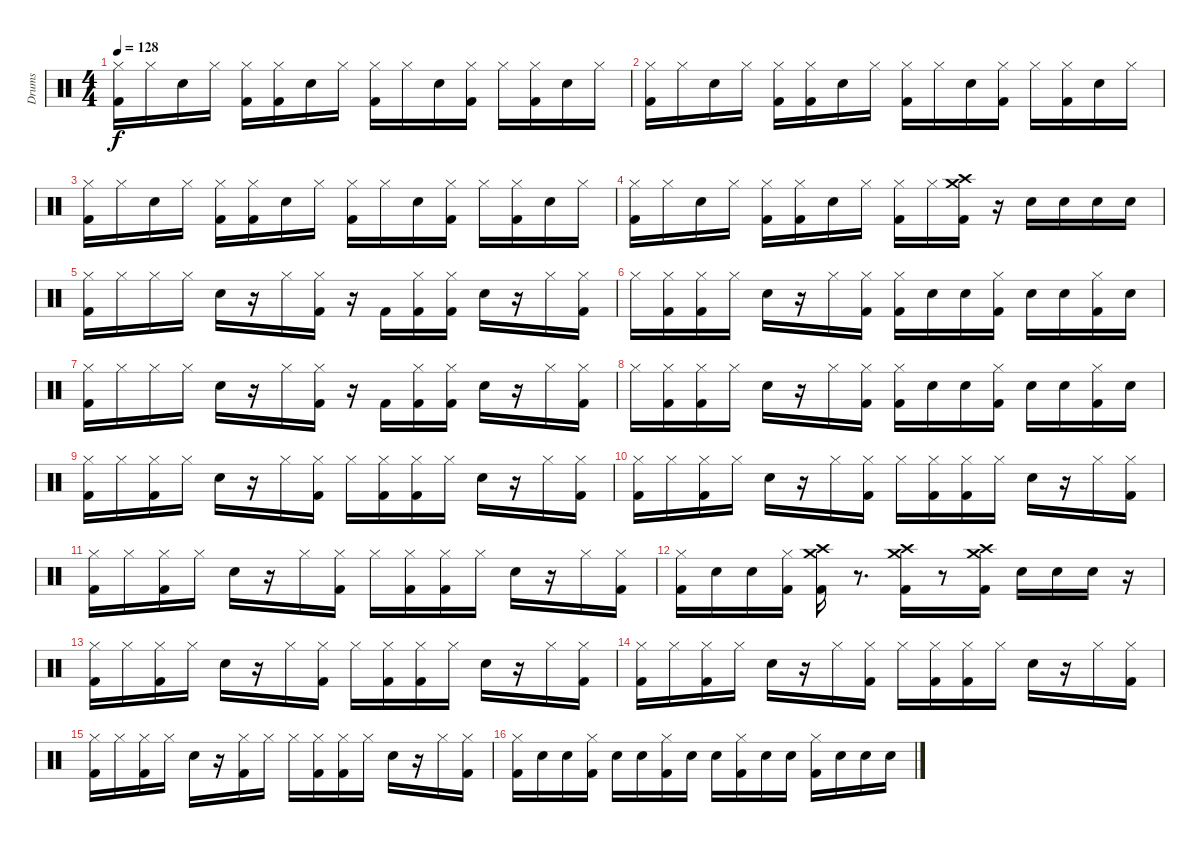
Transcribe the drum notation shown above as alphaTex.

\track ("Drums" "Drums") {instrument percussion}
\staff {score}
\articulation defaults
\ts (4 4)
\tempo 128
\clef neutral
\ks c
("Hi-Hat (closed)" "Kick (hit) 2").16{dy f} "Hi-Hat (closed)".16 "Snare (hit) 2".16 "Hi-Hat (closed)".16 ("Hi-Hat (closed)" "Kick (hit) 2").16 ("Hi-Hat (closed)" "Kick (hit) 2").16 "Snare (hit) 2".16 "Hi-Hat (closed)".16 ("Hi-Hat (closed)" "Kick (hit) 2").16 "Hi-Hat (closed)".16 "Snare (hit) 2".16 ("Hi-Hat (closed)" "Kick (hit) 2").16 "Hi-Hat (closed)".16 ("Hi-Hat (closed)" "Kick (hit) 2").16 "Snare (hit) 2".16 "Hi-Hat (closed)".16 |
("Hi-Hat (closed)" "Kick (hit) 2").16 "Hi-Hat (closed)".16 "Snare (hit) 2".16 "Hi-Hat (closed)".16 ("Hi-Hat (closed)" "Kick (hit) 2").16 ("Hi-Hat (closed)" "Kick (hit) 2").16 "Snare (hit) 2".16 "Hi-Hat (closed)".16 ("Hi-Hat (closed)" "Kick (hit) 2").16 "Hi-Hat (closed)".16 "Snare (hit) 2".16 ("Hi-Hat (closed)" "Kick (hit) 2").16 "Hi-Hat (closed)".16 ("Hi-Hat (closed)" "Kick (hit) 2").16 "Snare (hit) 2".16 "Hi-Hat (closed)".16 |
("Hi-Hat (closed)" "Kick (hit) 2").16 "Hi-Hat (closed)".16 "Snare (hit) 2".16 "Hi-Hat (closed)".16 ("Hi-Hat (closed)" "Kick (hit) 2").16 ("Hi-Hat (closed)" "Kick (hit) 2").16 "Snare (hit) 2".16 "Hi-Hat (closed)".16 ("Hi-Hat (closed)" "Kick (hit) 2").16 "Hi-Hat (closed)".16 "Snare (hit) 2".16 ("Hi-Hat (closed)" "Kick (hit) 2").16 "Hi-Hat (closed)".16 ("Hi-Hat (closed)" "Kick (hit) 2").16 "Snare (hit) 2".16 "Hi-Hat (closed)".16 |
("Hi-Hat (closed)" "Kick (hit) 2").16 "Hi-Hat (closed)".16 "Snare (hit) 2".16 "Hi-Hat (closed)".16 ("Hi-Hat (closed)" "Kick (hit) 2").16 ("Hi-Hat (closed)" "Kick (hit) 2").16 "Snare (hit) 2".16 "Hi-Hat (closed)".16 ("Hi-Hat (closed)" "Kick (hit) 2").16 "Hi-Hat (closed)".16 ("Crash medium (hit)" "Crash high (hit)" "Kick (hit) 2").16 r.16 "Snare (hit) 2".16 "Snare (hit) 2".16 "Snare (hit) 2".16 "Snare (hit) 2".16 |
("Hi-Hat (closed)" "Kick (hit) 2").16 "Hi-Hat (closed)".16 "Hi-Hat (closed)".16 "Hi-Hat (closed)".16 "Snare (hit) 2".16 r.16 "Hi-Hat (closed)".16 ("Hi-Hat (closed)" "Kick (hit) 2").16 r.16 "Kick (hit) 2".16 ("Hi-Hat (closed)" "Kick (hit) 2").16 ("Hi-Hat (closed)" "Kick (hit) 2").16 "Snare (hit) 2".16 r.16 "Hi-Hat (closed)".16 ("Hi-Hat (closed)" "Kick (hit) 2").16 |
"Hi-Hat (closed)".16 ("Hi-Hat (closed)" "Kick (hit) 2").16 ("Hi-Hat (closed)" "Kick (hit) 2").16 "Hi-Hat (closed)".16 "Snare (hit) 2".16 r.16 "Hi-Hat (closed)".16 ("Hi-Hat (closed)" "Kick (hit) 2").16 ("Hi-Hat (closed)" "Kick (hit) 2").16 "Snare (hit) 2".16 "Snare (hit) 2".16 ("Hi-Hat (closed)" "Kick (hit) 2").16 "Snare (hit) 2".16 "Snare (hit) 2".16 ("Hi-Hat (closed)" "Kick (hit) 2").16 "Snare (hit) 2".16 |
("Hi-Hat (closed)" "Kick (hit) 2").16 "Hi-Hat (closed)".16 "Hi-Hat (closed)".16 "Hi-Hat (closed)".16 "Snare (hit) 2".16 r.16 "Hi-Hat (closed)".16 ("Hi-Hat (closed)" "Kick (hit) 2").16 r.16 "Kick (hit) 2".16 ("Hi-Hat (closed)" "Kick (hit) 2").16 ("Hi-Hat (closed)" "Kick (hit) 2").16 "Snare (hit) 2".16 r.16 "Hi-Hat (closed)".16 ("Hi-Hat (closed)" "Kick (hit) 2").16 |
"Hi-Hat (closed)".16 ("Hi-Hat (closed)" "Kick (hit) 2").16 ("Hi-Hat (closed)" "Kick (hit) 2").16 "Hi-Hat (closed)".16 "Snare (hit) 2".16 r.16 "Hi-Hat (closed)".16 ("Hi-Hat (closed)" "Kick (hit) 2").16 ("Hi-Hat (closed)" "Kick (hit) 2").16 "Snare (hit) 2".16 "Snare (hit) 2".16 ("Hi-Hat (closed)" "Kick (hit) 2").16 "Snare (hit) 2".16 "Snare (hit) 2".16 ("Hi-Hat (closed)" "Kick (hit) 2").16 "Snare (hit) 2".16 |
("Hi-Hat (closed)" "Kick (hit) 2").16 "Hi-Hat (closed)".16 ("Hi-Hat (closed)" "Kick (hit) 2").16 "Hi-Hat (closed)".16 "Snare (hit) 2".16 r.16 "Hi-Hat (closed)".16 ("Hi-Hat (closed)" "Kick (hit) 2").16 "Hi-Hat (closed)".16 ("Hi-Hat (closed)" "Kick (hit) 2").16 ("Hi-Hat (closed)" "Kick (hit) 2").16 "Hi-Hat (closed)".16 "Snare (hit) 2".16 r.16 "Hi-Hat (closed)".16 ("Hi-Hat (closed)" "Kick (hit) 2").16 |
("Hi-Hat (closed)" "Kick (hit) 2").16 "Hi-Hat (closed)".16 ("Hi-Hat (closed)" "Kick (hit) 2").16 "Hi-Hat (closed)".16 "Snare (hit) 2".16 r.16 "Hi-Hat (closed)".16 ("Hi-Hat (closed)" "Kick (hit) 2").16 "Hi-Hat (closed)".16 ("Hi-Hat (closed)" "Kick (hit) 2").16 ("Hi-Hat (closed)" "Kick (hit) 2").16 "Hi-Hat (closed)".16 "Snare (hit) 2".16 r.16 "Hi-Hat (closed)".16 ("Hi-Hat (closed)" "Kick (hit) 2").16 |
("Hi-Hat (closed)" "Kick (hit) 2").16 "Hi-Hat (closed)".16 ("Hi-Hat (closed)" "Kick (hit) 2").16 "Hi-Hat (closed)".16 "Snare (hit) 2".16 r.16 "Hi-Hat (closed)".16 ("Hi-Hat (closed)" "Kick (hit) 2").16 "Hi-Hat (closed)".16 ("Hi-Hat (closed)" "Kick (hit) 2").16 ("Hi-Hat (closed)" "Kick (hit) 2").16 "Hi-Hat (closed)".16 "Snare (hit) 2".16 r.16 "Hi-Hat (closed)".16 ("Hi-Hat (closed)" "Kick (hit) 2").16 |
("Hi-Hat (closed)" "Kick (hit) 2").16 "Snare (hit) 2".16 "Snare (hit) 2".16 ("Hi-Hat (closed)" "Kick (hit) 2").16 ("Crash medium (hit)" "Crash high (hit)" "Kick (hit) 2").16 r.8{d} ("Crash medium (hit)" "Crash high (hit)" "Kick (hit) 2").16 r.8 ("Crash medium (hit)" "Crash high (hit)" "Kick (hit) 2").16 "Snare (hit) 2".16 "Snare (hit) 2".16 "Snare (hit) 2".16 r.16 |
("Hi-Hat (closed)" "Kick (hit) 2").16 "Hi-Hat (closed)".16 ("Hi-Hat (closed)" "Kick (hit) 2").16 "Hi-Hat (closed)".16 "Snare (hit) 2".16 r.16 "Hi-Hat (closed)".16 ("Hi-Hat (closed)" "Kick (hit) 2").16 "Hi-Hat (closed)".16 ("Hi-Hat (closed)" "Kick (hit) 2").16 ("Hi-Hat (closed)" "Kick (hit) 2").16 "Hi-Hat (closed)".16 "Snare (hit) 2".16 r.16 "Hi-Hat (closed)".16 ("Hi-Hat (closed)" "Kick (hit) 2").16 |
("Hi-Hat (closed)" "Kick (hit) 2").16 "Hi-Hat (closed)".16 ("Hi-Hat (closed)" "Kick (hit) 2").16 "Hi-Hat (closed)".16 "Snare (hit) 2".16 r.16 "Hi-Hat (closed)".16 ("Hi-Hat (closed)" "Kick (hit) 2").16 "Hi-Hat (closed)".16 ("Hi-Hat (closed)" "Kick (hit) 2").16 ("Hi-Hat (closed)" "Kick (hit) 2").16 "Hi-Hat (closed)".16 "Snare (hit) 2".16 r.16 "Hi-Hat (closed)".16 ("Hi-Hat (closed)" "Kick (hit) 2").16 |
("Hi-Hat (closed)" "Kick (hit) 2").16 "Hi-Hat (closed)".16 ("Hi-Hat (closed)" "Kick (hit) 2").16 "Hi-Hat (closed)".16 "Snare (hit) 2".16 r.16 ("Hi-Hat (closed)" "Kick (hit) 2").16 "Hi-Hat (closed)".16 "Hi-Hat (closed)".16 ("Hi-Hat (closed)" "Kick (hit) 2").16 ("Hi-Hat (closed)" "Kick (hit) 2").16 "Hi-Hat (closed)".16 "Snare (hit) 2".16 r.16 "Hi-Hat (closed)".16 ("Hi-Hat (closed)" "Kick (hit) 2").16 |
("Hi-Hat (closed)" "Kick (hit) 2").16 "Snare (hit) 2".16 "Snare (hit) 2".16 ("Hi-Hat (closed)" "Kick (hit) 2").16 "Snare (hit) 2".16 "Snare (hit) 2".16 ("Hi-Hat (closed)" "Kick (hit) 2").16 "Snare (hit) 2".16 "Snare (hit) 2".16 ("Hi-Hat (closed)" "Kick (hit) 2").16 "Snare (hit) 2".16 "Snare (hit) 2".16 ("Hi-Hat (closed)" "Kick (hit) 2").16 "Snare (hit) 2".16 "Snare (hit) 2".16 "Snare (hit) 2".16
